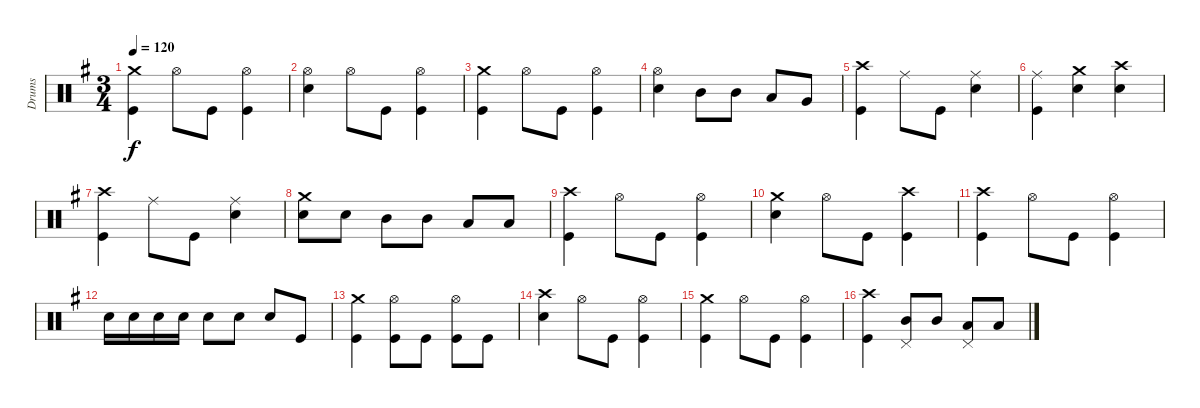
\track ("Drums" "Drums") {instrument percussion}
\staff {score}
\articulation defaults
\ts (3 4)
\tempo 120
\clef neutral
\ks g
("Crash medium (hit)" "Kick (hit)").4{dy f} "Hi-Hat (open)".8 "Kick (hit)".8 ("Hi-Hat (open)" "Kick (hit)").4 |
("Hi-Hat (open)" "Snare (hit) 2").4 "Hi-Hat (open)".8 "Kick (hit)".8 ("Hi-Hat (open)" "Kick (hit)").4 |
("Crash medium (hit)" "Kick (hit)").4 "Hi-Hat (open)".8 "Kick (hit)".8 ("Hi-Hat (open)" "Kick (hit)").4 |
("Hi-Hat (open)" "Snare (hit) 2").4 "Mid Tom (hit)".8 "Mid Tom (hit)".8 "Low Tom (hit)".8 "Very Low Tom (hit)".8 |
("Crash high (hit)" "Kick (hit)").4 "Ride (middle)".8 "Kick (hit)".8 ("Ride (middle)" "Snare (hit) 2").4 |
("Ride (middle)" "Kick (hit)").4 ("Crash medium (hit)" "Snare (hit) 2").4 ("Crash high (hit)" "Snare (hit) 2").4 |
("Crash high (hit)" "Kick (hit)").4 "Ride (middle)".8 "Kick (hit)".8 ("Ride (middle)" "Snare (hit) 2").4 |
("Crash medium (hit)" "Snare (hit) 2").8 "Snare (hit) 2".8 "Mid Tom (hit)".8 "Mid Tom (hit)".8 "Low Tom (hit)".8 "Low Tom (hit)".8 |
("Crash high (hit)" "Kick (hit)").4 "Hi-Hat (open)".8 "Kick (hit)".8 ("Hi-Hat (open)" "Kick (hit)").4 |
("Crash medium (hit)" "Snare (hit) 2").4 "Hi-Hat (open)".8 "Kick (hit)".8 ("Crash high (hit)" "Kick (hit)").4 |
("Crash high (hit)" "Kick (hit)").4 "Hi-Hat (open)".8 "Kick (hit)".8 ("Hi-Hat (open)" "Kick (hit)").4 |
"Snare (hit) 2".16 "Snare (hit) 2".16 "Snare (hit) 2".16 "Snare (hit) 2".16 "Snare (hit) 2".8 "Snare (hit) 2".8 "Snare (hit) 2".8 "Kick (hit)".8 |
("Crash medium (hit)" "Kick (hit)").4 ("Hi-Hat (open)" "Kick (hit)").8 "Kick (hit)".8 ("Hi-Hat (open)" "Kick (hit)").8 "Kick (hit)".8 |
("Crash high (hit)" "Snare (hit) 2").4 "Hi-Hat (open)".8 "Kick (hit)".8 ("Hi-Hat (open)" "Kick (hit)").4 |
("Crash medium (hit)" "Kick (hit)").4 "Hi-Hat (open)".8 "Kick (hit)".8 ("Hi-Hat (open)" "Kick (hit)").4 |
("Crash high (hit)" "Kick (hit)").4 ("Pedal Hi-Hat (hit)" "Mid Tom (hit)").8 "Mid Tom (hit)".8 ("Pedal Hi-Hat (hit)" "Low Tom (hit)").8 "Low Tom (hit)".8
